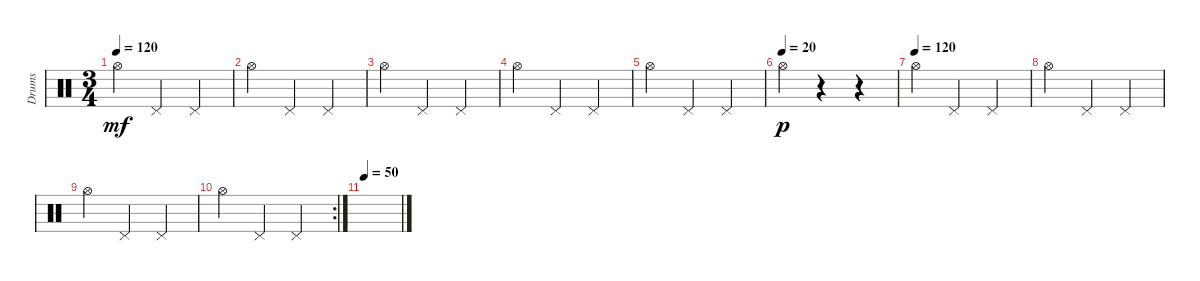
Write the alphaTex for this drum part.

\track ("Drums" "Drums") {instrument percussion}
\staff {score}
\articulation defaults
\ts (3 4)
\tempo 120
\clef neutral
\ks c "Hi-Hat (open)".4{dy mf} "Pedal Hi-Hat (hit)".4 "Pedal Hi-Hat (hit)".4
|
"Hi-Hat (open)".4 "Pedal Hi-Hat (hit)".4 "Pedal Hi-Hat (hit)".4 |
"Hi-Hat (open)".4 "Pedal Hi-Hat (hit)".4 "Pedal Hi-Hat (hit)".4 |
"Hi-Hat (open)".4 "Pedal Hi-Hat (hit)".4 "Pedal Hi-Hat (hit)".4 |
"Hi-Hat (open)".4 "Pedal Hi-Hat (hit)".4 "Pedal Hi-Hat (hit)".4 |
\tempo (20)
"Hi-Hat (open)".4{dy p} r.4 r.4 |
\tempo (120)
"Hi-Hat (open)".4 "Pedal Hi-Hat (hit)".4 "Pedal Hi-Hat (hit)".4 |
"Hi-Hat (open)".4 "Pedal Hi-Hat (hit)".4 "Pedal Hi-Hat (hit)".4 |
"Hi-Hat (open)".4 "Pedal Hi-Hat (hit)".4 "Pedal Hi-Hat (hit)".4 |
\rc 2 "Hi-Hat (open)".4 "Pedal Hi-Hat (hit)".4 "Pedal Hi-Hat (hit)".4
|
\tempo 50
